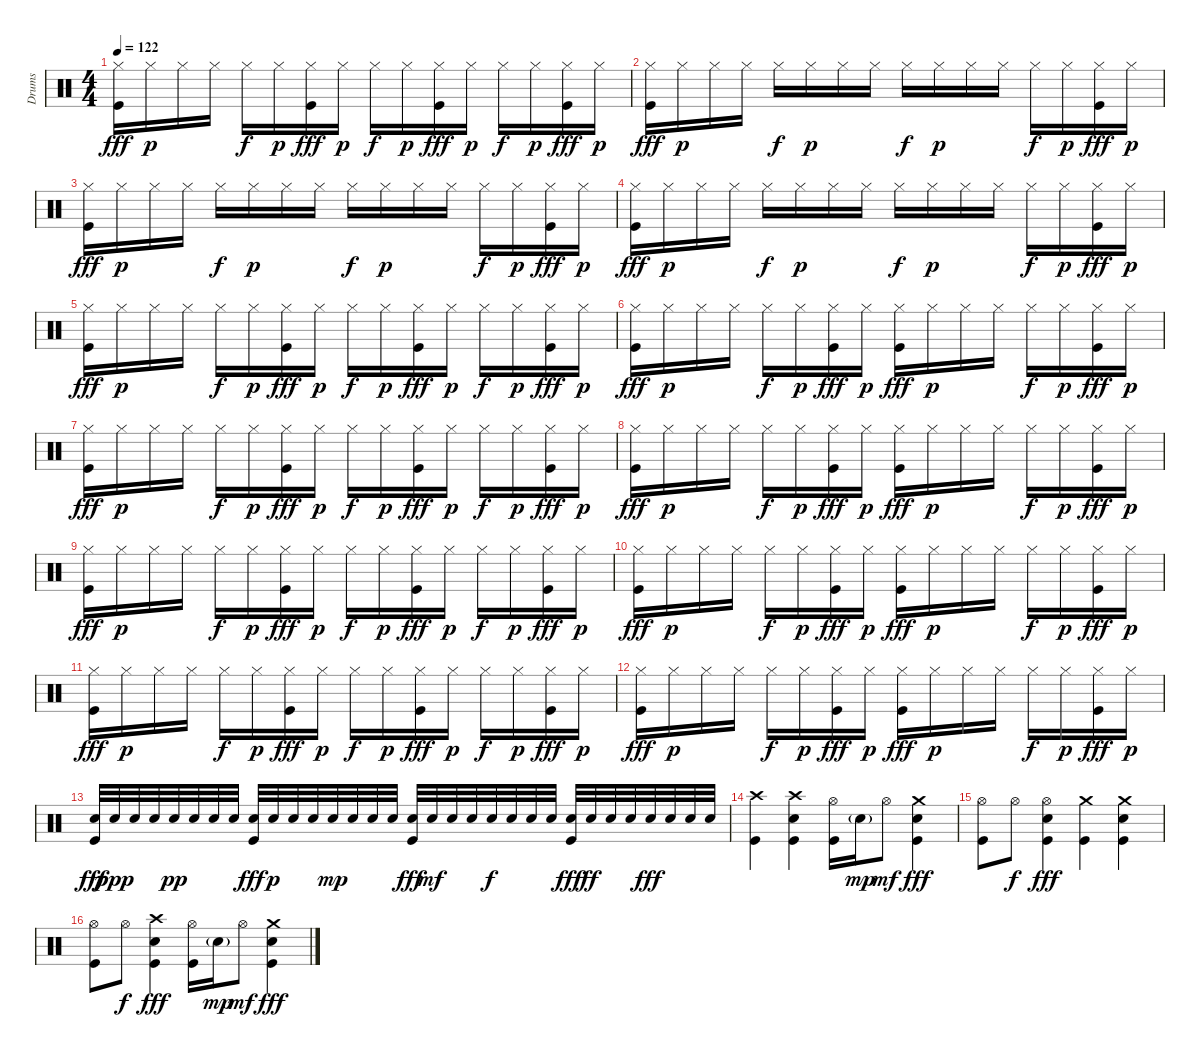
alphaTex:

\track ("Drums" "Drums") {instrument percussion}
\staff {score}
\articulation defaults
\ts (4 4)
\tempo 122
\clef neutral
\ks c
("Hi-Hat (closed)" "Kick (hit)").16{dy fff} "Hi-Hat (closed)".16{dy p} "Hi-Hat (closed)".16 "Hi-Hat (closed)".16 "Hi-Hat (closed)".16{dy f} "Hi-Hat (closed)".16{dy p} ("Hi-Hat (closed)" "Kick (hit)").16{dy fff} "Hi-Hat (closed)".16{dy p} "Hi-Hat (closed)".16{dy f} "Hi-Hat (closed)".16{dy p} ("Hi-Hat (closed)" "Kick (hit)").16{dy fff} "Hi-Hat (closed)".16{dy p} "Hi-Hat (closed)".16{dy f} "Hi-Hat (closed)".16{dy p} ("Hi-Hat (closed)" "Kick (hit)").16{dy fff} "Hi-Hat (closed)".16{dy p} |
("Hi-Hat (closed)" "Kick (hit)").16{dy fff} "Hi-Hat (closed)".16{dy p} "Hi-Hat (closed)".16 "Hi-Hat (closed)".16 "Hi-Hat (closed)".16{dy f} "Hi-Hat (closed)".16{dy p} "Hi-Hat (closed)".16 "Hi-Hat (closed)".16 "Hi-Hat (closed)".16{dy f} "Hi-Hat (closed)".16{dy p} "Hi-Hat (closed)".16 "Hi-Hat (closed)".16 "Hi-Hat (closed)".16{dy f} "Hi-Hat (closed)".16{dy p} ("Hi-Hat (closed)" "Kick (hit)").16{dy fff} "Hi-Hat (closed)".16{dy p} |
("Hi-Hat (closed)" "Kick (hit)").16{dy fff} "Hi-Hat (closed)".16{dy p} "Hi-Hat (closed)".16 "Hi-Hat (closed)".16 "Hi-Hat (closed)".16{dy f} "Hi-Hat (closed)".16{dy p} "Hi-Hat (closed)".16 "Hi-Hat (closed)".16 "Hi-Hat (closed)".16{dy f} "Hi-Hat (closed)".16{dy p} "Hi-Hat (closed)".16 "Hi-Hat (closed)".16 "Hi-Hat (closed)".16{dy f} "Hi-Hat (closed)".16{dy p} ("Hi-Hat (closed)" "Kick (hit)").16{dy fff} "Hi-Hat (closed)".16{dy p} |
("Hi-Hat (closed)" "Kick (hit)").16{dy fff} "Hi-Hat (closed)".16{dy p} "Hi-Hat (closed)".16 "Hi-Hat (closed)".16 "Hi-Hat (closed)".16{dy f} "Hi-Hat (closed)".16{dy p} "Hi-Hat (closed)".16 "Hi-Hat (closed)".16 "Hi-Hat (closed)".16{dy f} "Hi-Hat (closed)".16{dy p} "Hi-Hat (closed)".16 "Hi-Hat (closed)".16 "Hi-Hat (closed)".16{dy f} "Hi-Hat (closed)".16{dy p} ("Hi-Hat (closed)" "Kick (hit)").16{dy fff} "Hi-Hat (closed)".16{dy p} |
("Hi-Hat (closed)" "Kick (hit)").16{dy fff} "Hi-Hat (closed)".16{dy p} "Hi-Hat (closed)".16 "Hi-Hat (closed)".16 "Hi-Hat (closed)".16{dy f} "Hi-Hat (closed)".16{dy p} ("Hi-Hat (closed)" "Kick (hit)").16{dy fff} "Hi-Hat (closed)".16{dy p} "Hi-Hat (closed)".16{dy f} "Hi-Hat (closed)".16{dy p} ("Hi-Hat (closed)" "Kick (hit)").16{dy fff} "Hi-Hat (closed)".16{dy p} "Hi-Hat (closed)".16{dy f} "Hi-Hat (closed)".16{dy p} ("Hi-Hat (closed)" "Kick (hit)").16{dy fff} "Hi-Hat (closed)".16{dy p} |
("Hi-Hat (closed)" "Kick (hit)").16{dy fff} "Hi-Hat (closed)".16{dy p} "Hi-Hat (closed)".16 "Hi-Hat (closed)".16 "Hi-Hat (closed)".16{dy f} "Hi-Hat (closed)".16{dy p} ("Hi-Hat (closed)" "Kick (hit)").16{dy fff} "Hi-Hat (closed)".16{dy p} ("Hi-Hat (closed)" "Kick (hit)").16{dy fff} "Hi-Hat (closed)".16{dy p} "Hi-Hat (closed)".16 "Hi-Hat (closed)".16 "Hi-Hat (closed)".16{dy f} "Hi-Hat (closed)".16{dy p} ("Hi-Hat (closed)" "Kick (hit)").16{dy fff} "Hi-Hat (closed)".16{dy p} |
("Hi-Hat (closed)" "Kick (hit)").16{dy fff} "Hi-Hat (closed)".16{dy p} "Hi-Hat (closed)".16 "Hi-Hat (closed)".16 "Hi-Hat (closed)".16{dy f} "Hi-Hat (closed)".16{dy p} ("Hi-Hat (closed)" "Kick (hit)").16{dy fff} "Hi-Hat (closed)".16{dy p} "Hi-Hat (closed)".16{dy f} "Hi-Hat (closed)".16{dy p} ("Hi-Hat (closed)" "Kick (hit)").16{dy fff} "Hi-Hat (closed)".16{dy p} "Hi-Hat (closed)".16{dy f} "Hi-Hat (closed)".16{dy p} ("Hi-Hat (closed)" "Kick (hit)").16{dy fff} "Hi-Hat (closed)".16{dy p} |
("Hi-Hat (closed)" "Kick (hit)").16{dy fff} "Hi-Hat (closed)".16{dy p} "Hi-Hat (closed)".16 "Hi-Hat (closed)".16 "Hi-Hat (closed)".16{dy f} "Hi-Hat (closed)".16{dy p} ("Hi-Hat (closed)" "Kick (hit)").16{dy fff} "Hi-Hat (closed)".16{dy p} ("Hi-Hat (closed)" "Kick (hit)").16{dy fff} "Hi-Hat (closed)".16{dy p} "Hi-Hat (closed)".16 "Hi-Hat (closed)".16 "Hi-Hat (closed)".16{dy f} "Hi-Hat (closed)".16{dy p} ("Hi-Hat (closed)" "Kick (hit)").16{dy fff} "Hi-Hat (closed)".16{dy p} |
("Hi-Hat (closed)" "Kick (hit)").16{dy fff} "Hi-Hat (closed)".16{dy p} "Hi-Hat (closed)".16 "Hi-Hat (closed)".16 "Hi-Hat (closed)".16{dy f} "Hi-Hat (closed)".16{dy p} ("Hi-Hat (closed)" "Kick (hit)").16{dy fff} "Hi-Hat (closed)".16{dy p} "Hi-Hat (closed)".16{dy f} "Hi-Hat (closed)".16{dy p} ("Hi-Hat (closed)" "Kick (hit)").16{dy fff} "Hi-Hat (closed)".16{dy p} "Hi-Hat (closed)".16{dy f} "Hi-Hat (closed)".16{dy p} ("Hi-Hat (closed)" "Kick (hit)").16{dy fff} "Hi-Hat (closed)".16{dy p} |
("Hi-Hat (closed)" "Kick (hit)").16{dy fff} "Hi-Hat (closed)".16{dy p} "Hi-Hat (closed)".16 "Hi-Hat (closed)".16 "Hi-Hat (closed)".16{dy f} "Hi-Hat (closed)".16{dy p} ("Hi-Hat (closed)" "Kick (hit)").16{dy fff} "Hi-Hat (closed)".16{dy p} ("Hi-Hat (closed)" "Kick (hit)").16{dy fff} "Hi-Hat (closed)".16{dy p} "Hi-Hat (closed)".16 "Hi-Hat (closed)".16 "Hi-Hat (closed)".16{dy f} "Hi-Hat (closed)".16{dy p} ("Hi-Hat (closed)" "Kick (hit)").16{dy fff} "Hi-Hat (closed)".16{dy p} |
("Hi-Hat (closed)" "Kick (hit)").16{dy fff} "Hi-Hat (closed)".16{dy p} "Hi-Hat (closed)".16 "Hi-Hat (closed)".16 "Hi-Hat (closed)".16{dy f} "Hi-Hat (closed)".16{dy p} ("Hi-Hat (closed)" "Kick (hit)").16{dy fff} "Hi-Hat (closed)".16{dy p} "Hi-Hat (closed)".16{dy f} "Hi-Hat (closed)".16{dy p} ("Hi-Hat (closed)" "Kick (hit)").16{dy fff} "Hi-Hat (closed)".16{dy p} "Hi-Hat (closed)".16{dy f} "Hi-Hat (closed)".16{dy p} ("Hi-Hat (closed)" "Kick (hit)").16{dy fff} "Hi-Hat (closed)".16{dy p} |
("Hi-Hat (closed)" "Kick (hit)").16{dy fff} "Hi-Hat (closed)".16{dy p} "Hi-Hat (closed)".16 "Hi-Hat (closed)".16 "Hi-Hat (closed)".16{dy f} "Hi-Hat (closed)".16{dy p} ("Hi-Hat (closed)" "Kick (hit)").16{dy fff} "Hi-Hat (closed)".16{dy p} ("Hi-Hat (closed)" "Kick (hit)").16{dy fff} "Hi-Hat (closed)".16{dy p} "Hi-Hat (closed)".16 "Hi-Hat (closed)".16 "Hi-Hat (closed)".16{dy f} "Hi-Hat (closed)".16{dy p} ("Hi-Hat (closed)" "Kick (hit)").16{dy fff} "Hi-Hat (closed)".16{dy p} |
("Snare (hit) 2" "Kick (hit)").32{dy fff} "Snare (hit) 2".32{dy ppp} "Snare (hit) 2".32 "Snare (hit) 2".32 "Snare (hit) 2".32{dy pp} "Snare (hit) 2".32 "Snare (hit) 2".32 "Snare (hit) 2".32 ("Snare (hit) 2" "Kick (hit)").32{dy fff} "Snare (hit) 2".32{dy p} "Snare (hit) 2".32 "Snare (hit) 2".32 "Snare (hit) 2".32{dy mp} "Snare (hit) 2".32 "Snare (hit) 2".32 "Snare (hit) 2".32 ("Snare (hit) 2" "Kick (hit)").32{dy fff} "Snare (hit) 2".32{dy mf} "Snare (hit) 2".32 "Snare (hit) 2".32 "Snare (hit) 2".32{dy f} "Snare (hit) 2".32 "Snare (hit) 2".32 "Snare (hit) 2".32 ("Snare (hit) 2" "Kick (hit)").32{dy fff} "Snare (hit) 2".32{dy ff} "Snare (hit) 2".32 "Snare (hit) 2".32 "Snare (hit) 2".32{dy fff} "Snare (hit) 2".32 "Snare (hit) 2".32 "Snare (hit) 2".32 |
("Crash high (hit)" "Kick (hit)").4 ("Crash high (hit)" "Snare (hit) 2" "Kick (hit)").4 ("Hi-Hat (open)" "Kick (hit)").16 "Snare (hit) 2"{g}.16{dy mp} "Hi-Hat (open)".8{dy mf} ("Crash medium (hit)" "Snare (hit) 2" "Kick (hit)").4{dy fff} |
("Hi-Hat (open)" "Kick (hit)").8 "Hi-Hat (open)".8{dy f} ("Hi-Hat (open)" "Snare (hit) 2" "Kick (hit)").4{dy fff} ("Crash medium (hit)" "Kick (hit)").4 ("Crash medium (hit)" "Snare (hit) 2" "Kick (hit)").4 |
("Hi-Hat (open)" "Kick (hit)").8 "Hi-Hat (open)".8{dy f} ("Crash high (hit)" "Snare (hit) 2" "Kick (hit)").4{dy fff} ("Hi-Hat (open)" "Kick (hit)").16 "Snare (hit) 2"{g}.16{dy mp} "Hi-Hat (open)".8{dy mf} ("Crash medium (hit)" "Snare (hit) 2" "Kick (hit)").4{dy fff}
